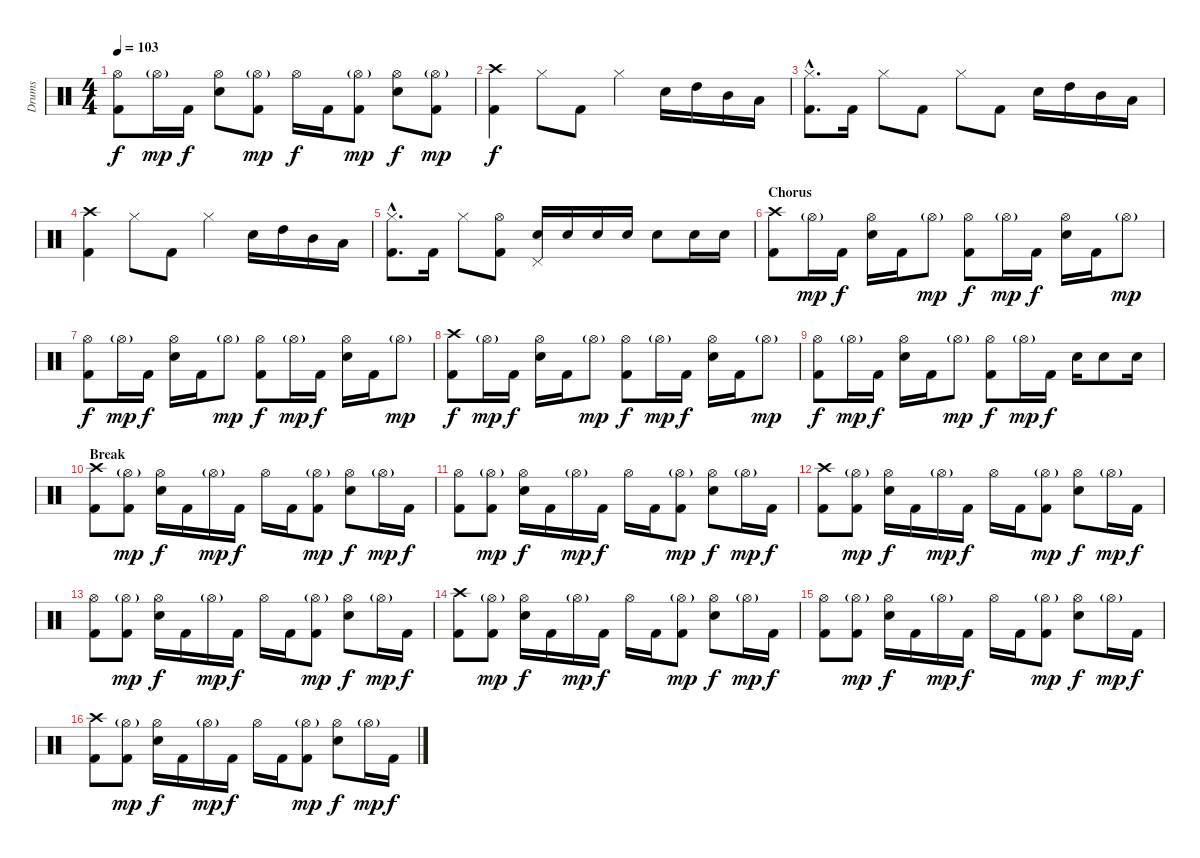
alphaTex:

\track ("Drums" "Drums") {instrument percussion}
\staff {score}
\articulation defaults
\ts (4 4)
\tempo 103
\clef neutral
\ks c
("Hi-Hat (open)" "Kick (hit) 2").8{dy f} "Hi-Hat (open)"{g}.16{dy mp} "Kick (hit) 2".16{dy f} ("Hi-Hat (open)" "Snare (hit) 2").8 ("Hi-Hat (open)"{g} "Kick (hit) 2").8{dy mp} "Hi-Hat (open)".16{dy f} "Kick (hit) 2".16 ("Hi-Hat (open)"{g} "Kick (hit) 2").8{dy mp} ("Hi-Hat (open)" "Snare (hit) 2").8{dy f} ("Hi-Hat (open)"{g} "Kick (hit) 2").8{dy mp} |
("Crash high (hit)" "Kick (hit) 2").4{dy f} "Hi-Hat (closed)".8 "Kick (hit) 2".8 "Hi-Hat (closed)".4 "Snare (hit) 2".16 "High Tom (hit)".16 "Mid Tom (hit)".16 "Low Floor Tom (hit)".16 |
("Hi-Hat (closed)"{hac} "Kick (hit) 2"{hac}).8{d} "Kick (hit) 2".16 "Hi-Hat (closed)".8 "Kick (hit) 2".8 "Hi-Hat (closed)".8 "Kick (hit) 2".8 "Snare (hit) 2".16 "High Tom (hit)".16 "Mid Tom (hit)".16 "Low Floor Tom (hit)".16 |
("Crash high (hit)" "Kick (hit) 2").4 "Hi-Hat (closed)".8 "Kick (hit) 2".8 "Hi-Hat (closed)".4 "Snare (hit) 2".16 "High Tom (hit)".16 "Mid Tom (hit)".16 "Low Floor Tom (hit)".16 |
("Hi-Hat (closed)"{hac} "Kick (hit) 2"{hac}).8{d} "Kick (hit) 2".16 "Hi-Hat (closed)".8 ("Hi-Hat (open)" "Kick (hit) 2").8 ("Snare (hit) 2" "Pedal Hi-Hat (hit)").16 "Snare (hit) 2".16 "Snare (hit) 2".16 "Snare (hit) 2".16 "Snare (hit) 2".8 "Snare (hit) 2".16 "Snare (hit) 2".16 |
\section ("" "Chorus")
("Crash high (hit)" "Kick (hit) 2").8 "Hi-Hat (open)"{g}.16{dy mp} "Kick (hit) 2".16{dy f} ("Hi-Hat (open)" "Snare (hit) 2").16 "Kick (hit) 2".16 "Hi-Hat (open)"{g}.8{dy mp} ("Hi-Hat (open)" "Kick (hit) 2").8{dy f} "Hi-Hat (open)"{g}.16{dy mp} "Kick (hit) 2".16{dy f} ("Hi-Hat (open)" "Snare (hit) 2").16 "Kick (hit) 2".16 "Hi-Hat (open)"{g}.8{dy mp} |
("Hi-Hat (open)" "Kick (hit) 2").8{dy f} "Hi-Hat (open)"{g}.16{dy mp} "Kick (hit) 2".16{dy f} ("Hi-Hat (open)" "Snare (hit) 2").16 "Kick (hit) 2".16 "Hi-Hat (open)"{g}.8{dy mp} ("Hi-Hat (open)" "Kick (hit) 2").8{dy f} "Hi-Hat (open)"{g}.16{dy mp} "Kick (hit) 2".16{dy f} ("Hi-Hat (open)" "Snare (hit) 2").16 "Kick (hit) 2".16 "Hi-Hat (open)"{g}.8{dy mp} |
("Crash high (hit)" "Kick (hit) 2").8{dy f} "Hi-Hat (open)"{g}.16{dy mp} "Kick (hit) 2".16{dy f} ("Hi-Hat (open)" "Snare (hit) 2").16 "Kick (hit) 2".16 "Hi-Hat (open)"{g}.8{dy mp} ("Hi-Hat (open)" "Kick (hit) 2").8{dy f} "Hi-Hat (open)"{g}.16{dy mp} "Kick (hit) 2".16{dy f} ("Hi-Hat (open)" "Snare (hit) 2").16 "Kick (hit) 2".16 "Hi-Hat (open)"{g}.8{dy mp} |
("Hi-Hat (open)" "Kick (hit) 2").8{dy f} "Hi-Hat (open)"{g}.16{dy mp} "Kick (hit) 2".16{dy f} ("Hi-Hat (open)" "Snare (hit) 2").16 "Kick (hit) 2".16 "Hi-Hat (open)"{g}.8{dy mp} ("Hi-Hat (open)" "Kick (hit) 2").8{dy f} "Hi-Hat (open)"{g}.16{dy mp} "Kick (hit) 2".16{dy f} "Snare (hit) 2".16 "Snare (hit) 2".8 "Snare (hit) 2".16 |
\section ("" "Break")
("Crash high (hit)" "Kick (hit) 2").8 ("Hi-Hat (open)"{g} "Kick (hit) 2").8{dy mp} ("Hi-Hat (open)" "Snare (hit) 2").16{dy f} "Kick (hit) 2".16 "Hi-Hat (open)"{g}.16{dy mp} "Kick (hit) 2".16{dy f} "Hi-Hat (open)".16 "Kick (hit) 2".16 ("Hi-Hat (open)"{g} "Kick (hit) 2").8{dy mp} ("Hi-Hat (open)" "Snare (hit) 2").8{dy f} "Hi-Hat (open)"{g}.16{dy mp} "Kick (hit) 2".16{dy f} |
("Hi-Hat (open)" "Kick (hit) 2").8 ("Hi-Hat (open)"{g} "Kick (hit) 2").8{dy mp} ("Hi-Hat (open)" "Snare (hit) 2").16{dy f} "Kick (hit) 2".16 "Hi-Hat (open)"{g}.16{dy mp} "Kick (hit) 2".16{dy f} "Hi-Hat (open)".16 "Kick (hit) 2".16 ("Hi-Hat (open)"{g} "Kick (hit) 2").8{dy mp} ("Hi-Hat (open)" "Snare (hit) 2").8{dy f} "Hi-Hat (open)"{g}.16{dy mp} "Kick (hit) 2".16{dy f} |
("Crash high (hit)" "Kick (hit) 2").8 ("Hi-Hat (open)"{g} "Kick (hit) 2").8{dy mp} ("Hi-Hat (open)" "Snare (hit) 2").16{dy f} "Kick (hit) 2".16 "Hi-Hat (open)"{g}.16{dy mp} "Kick (hit) 2".16{dy f} "Hi-Hat (open)".16 "Kick (hit) 2".16 ("Hi-Hat (open)"{g} "Kick (hit) 2").8{dy mp} ("Hi-Hat (open)" "Snare (hit) 2").8{dy f} "Hi-Hat (open)"{g}.16{dy mp} "Kick (hit) 2".16{dy f} |
("Hi-Hat (open)" "Kick (hit) 2").8 ("Hi-Hat (open)"{g} "Kick (hit) 2").8{dy mp} ("Hi-Hat (open)" "Snare (hit) 2").16{dy f} "Kick (hit) 2".16 "Hi-Hat (open)"{g}.16{dy mp} "Kick (hit) 2".16{dy f} "Hi-Hat (open)".16 "Kick (hit) 2".16 ("Hi-Hat (open)"{g} "Kick (hit) 2").8{dy mp} ("Hi-Hat (open)" "Snare (hit) 2").8{dy f} "Hi-Hat (open)"{g}.16{dy mp} "Kick (hit) 2".16{dy f} |
("Crash high (hit)" "Kick (hit) 2").8 ("Hi-Hat (open)"{g} "Kick (hit) 2").8{dy mp} ("Hi-Hat (open)" "Snare (hit) 2").16{dy f} "Kick (hit) 2".16 "Hi-Hat (open)"{g}.16{dy mp} "Kick (hit) 2".16{dy f} "Hi-Hat (open)".16 "Kick (hit) 2".16 ("Hi-Hat (open)"{g} "Kick (hit) 2").8{dy mp} ("Hi-Hat (open)" "Snare (hit) 2").8{dy f} "Hi-Hat (open)"{g}.16{dy mp} "Kick (hit) 2".16{dy f} |
("Hi-Hat (open)" "Kick (hit) 2").8 ("Hi-Hat (open)"{g} "Kick (hit) 2").8{dy mp} ("Hi-Hat (open)" "Snare (hit) 2").16{dy f} "Kick (hit) 2".16 "Hi-Hat (open)"{g}.16{dy mp} "Kick (hit) 2".16{dy f} "Hi-Hat (open)".16 "Kick (hit) 2".16 ("Hi-Hat (open)"{g} "Kick (hit) 2").8{dy mp} ("Hi-Hat (open)" "Snare (hit) 2").8{dy f} "Hi-Hat (open)"{g}.16{dy mp} "Kick (hit) 2".16{dy f} |
("Crash high (hit)" "Kick (hit) 2").8 ("Hi-Hat (open)"{g} "Kick (hit) 2").8{dy mp} ("Hi-Hat (open)" "Snare (hit) 2").16{dy f} "Kick (hit) 2".16 "Hi-Hat (open)"{g}.16{dy mp} "Kick (hit) 2".16{dy f} "Hi-Hat (open)".16 "Kick (hit) 2".16 ("Hi-Hat (open)"{g} "Kick (hit) 2").8{dy mp} ("Hi-Hat (open)" "Snare (hit) 2").8{dy f} "Hi-Hat (open)"{g}.16{dy mp} "Kick (hit) 2".16{dy f}
